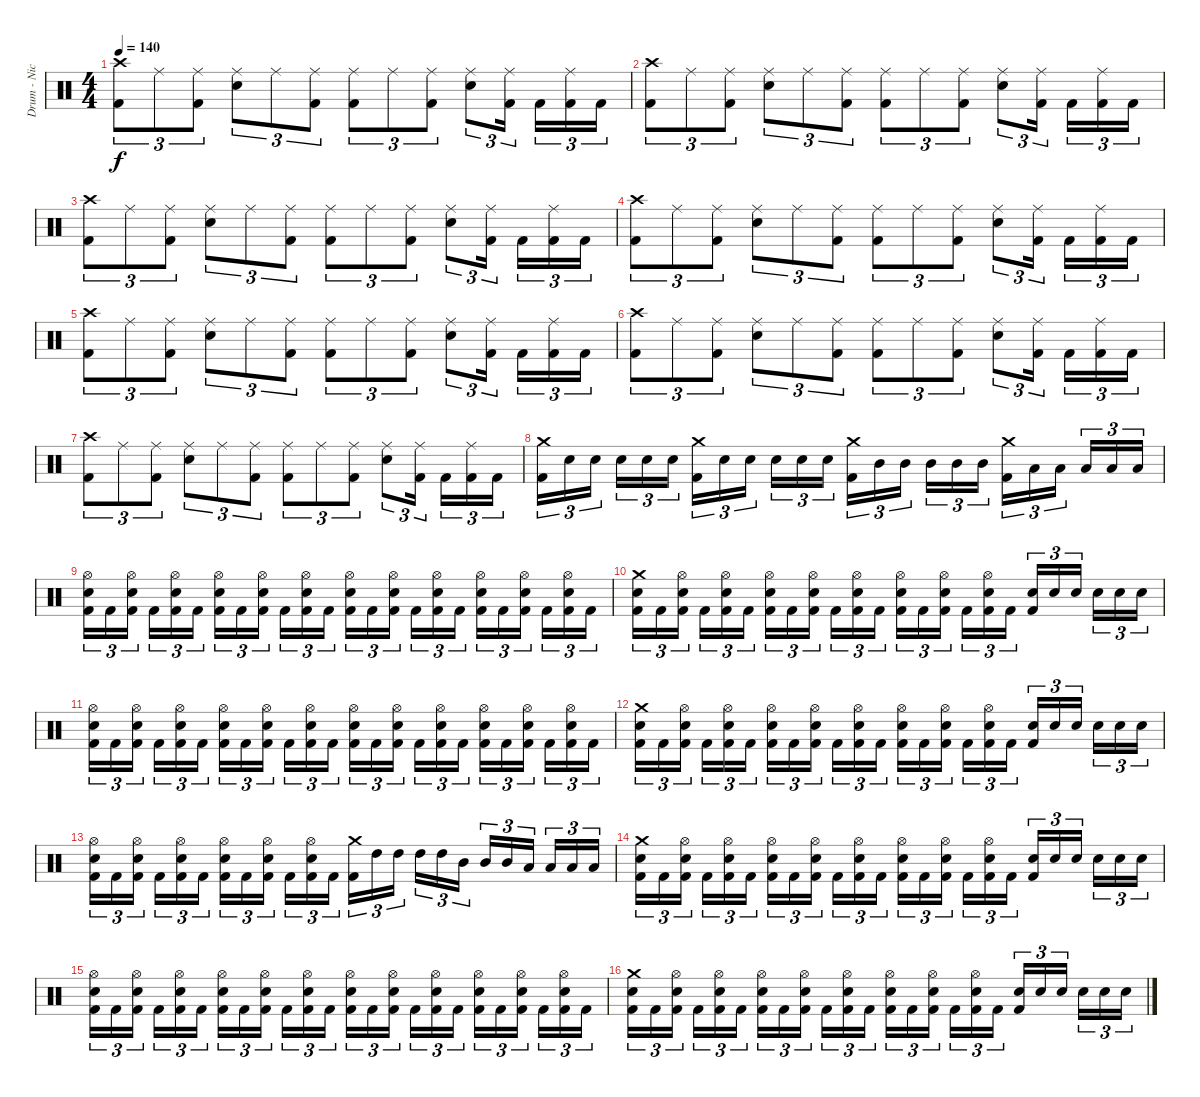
\track ("Drum - Nicholas" "Drum - Nic") {instrument percussion}
\staff {score}
\articulation defaults
\ts (4 4)
\tempo 140
\clef neutral
\ks c
("Crash high (hit)" "Kick (hit) 2").8{tu (3 2) dy f} "Ride (middle)".8{tu (3 2)} ("Ride (middle)" "Kick (hit) 2").8{tu (3 2)} ("Ride (middle)" "Snare (hit) 2").8{tu (3 2)} "Ride (middle)".8{tu (3 2)} ("Ride (middle)" "Kick (hit) 2").8{tu (3 2)} ("Ride (middle)" "Kick (hit) 2").8{tu (3 2)} "Ride (middle)".8{tu (3 2)} ("Ride (middle)" "Kick (hit) 2").8{tu (3 2)} ("Ride (middle)" "Snare (hit) 2").8{tu (3 2)} ("Ride (middle)" "Kick (hit) 2").16{tu (3 2) beam splitsecondary} "Kick (hit) 2".16{tu (3 2)} ("Ride (middle)" "Kick (hit) 2").16{tu (3 2)} "Kick (hit) 2".16{tu (3 2)} |
("Crash high (hit)" "Kick (hit) 2").8{tu (3 2)} "Ride (middle)".8{tu (3 2)} ("Ride (middle)" "Kick (hit) 2").8{tu (3 2)} ("Ride (middle)" "Snare (hit) 2").8{tu (3 2)} "Ride (middle)".8{tu (3 2)} ("Ride (middle)" "Kick (hit) 2").8{tu (3 2)} ("Ride (middle)" "Kick (hit) 2").8{tu (3 2)} "Ride (middle)".8{tu (3 2)} ("Ride (middle)" "Kick (hit) 2").8{tu (3 2)} ("Ride (middle)" "Snare (hit) 2").8{tu (3 2)} ("Ride (middle)" "Kick (hit) 2").16{tu (3 2) beam splitsecondary} "Kick (hit) 2".16{tu (3 2)} ("Ride (middle)" "Kick (hit) 2").16{tu (3 2)} "Kick (hit) 2".16{tu (3 2)} |
("Crash high (hit)" "Kick (hit) 2").8{tu (3 2)} "Ride (middle)".8{tu (3 2)} ("Ride (middle)" "Kick (hit) 2").8{tu (3 2)} ("Ride (middle)" "Snare (hit) 2").8{tu (3 2)} "Ride (middle)".8{tu (3 2)} ("Ride (middle)" "Kick (hit) 2").8{tu (3 2)} ("Ride (middle)" "Kick (hit) 2").8{tu (3 2)} "Ride (middle)".8{tu (3 2)} ("Ride (middle)" "Kick (hit) 2").8{tu (3 2)} ("Ride (middle)" "Snare (hit) 2").8{tu (3 2)} ("Ride (middle)" "Kick (hit) 2").16{tu (3 2) beam splitsecondary} "Kick (hit) 2".16{tu (3 2)} ("Ride (middle)" "Kick (hit) 2").16{tu (3 2)} "Kick (hit) 2".16{tu (3 2)} |
("Crash high (hit)" "Kick (hit) 2").8{tu (3 2)} "Ride (middle)".8{tu (3 2)} ("Ride (middle)" "Kick (hit) 2").8{tu (3 2)} ("Ride (middle)" "Snare (hit) 2").8{tu (3 2)} "Ride (middle)".8{tu (3 2)} ("Ride (middle)" "Kick (hit) 2").8{tu (3 2)} ("Ride (middle)" "Kick (hit) 2").8{tu (3 2)} "Ride (middle)".8{tu (3 2)} ("Ride (middle)" "Kick (hit) 2").8{tu (3 2)} ("Ride (middle)" "Snare (hit) 2").8{tu (3 2)} ("Ride (middle)" "Kick (hit) 2").16{tu (3 2) beam splitsecondary} "Kick (hit) 2".16{tu (3 2)} ("Ride (middle)" "Kick (hit) 2").16{tu (3 2)} "Kick (hit) 2".16{tu (3 2)} |
("Crash high (hit)" "Kick (hit) 2").8{tu (3 2)} "Ride (middle)".8{tu (3 2)} ("Ride (middle)" "Kick (hit) 2").8{tu (3 2)} ("Ride (middle)" "Snare (hit) 2").8{tu (3 2)} "Ride (middle)".8{tu (3 2)} ("Ride (middle)" "Kick (hit) 2").8{tu (3 2)} ("Ride (middle)" "Kick (hit) 2").8{tu (3 2)} "Ride (middle)".8{tu (3 2)} ("Ride (middle)" "Kick (hit) 2").8{tu (3 2)} ("Ride (middle)" "Snare (hit) 2").8{tu (3 2)} ("Ride (middle)" "Kick (hit) 2").16{tu (3 2) beam splitsecondary} "Kick (hit) 2".16{tu (3 2)} ("Ride (middle)" "Kick (hit) 2").16{tu (3 2)} "Kick (hit) 2".16{tu (3 2)} |
("Crash high (hit)" "Kick (hit) 2").8{tu (3 2)} "Ride (middle)".8{tu (3 2)} ("Ride (middle)" "Kick (hit) 2").8{tu (3 2)} ("Ride (middle)" "Snare (hit) 2").8{tu (3 2)} "Ride (middle)".8{tu (3 2)} ("Ride (middle)" "Kick (hit) 2").8{tu (3 2)} ("Ride (middle)" "Kick (hit) 2").8{tu (3 2)} "Ride (middle)".8{tu (3 2)} ("Ride (middle)" "Kick (hit) 2").8{tu (3 2)} ("Ride (middle)" "Snare (hit) 2").8{tu (3 2)} ("Ride (middle)" "Kick (hit) 2").16{tu (3 2) beam splitsecondary} "Kick (hit) 2".16{tu (3 2)} ("Ride (middle)" "Kick (hit) 2").16{tu (3 2)} "Kick (hit) 2".16{tu (3 2)} |
("Crash high (hit)" "Kick (hit) 2").8{tu (3 2)} "Ride (middle)".8{tu (3 2)} ("Ride (middle)" "Kick (hit) 2").8{tu (3 2)} ("Ride (middle)" "Snare (hit) 2").8{tu (3 2)} "Ride (middle)".8{tu (3 2)} ("Ride (middle)" "Kick (hit) 2").8{tu (3 2)} ("Ride (middle)" "Kick (hit) 2").8{tu (3 2)} "Ride (middle)".8{tu (3 2)} ("Ride (middle)" "Kick (hit) 2").8{tu (3 2)} ("Ride (middle)" "Snare (hit) 2").8{tu (3 2)} ("Ride (middle)" "Kick (hit) 2").16{tu (3 2) beam splitsecondary} "Kick (hit) 2".16{tu (3 2)} ("Ride (middle)" "Kick (hit) 2").16{tu (3 2)} "Kick (hit) 2".16{tu (3 2)} |
("Crash medium (hit)" "Kick (hit) 2").16{tu (3 2)} "Snare (hit) 2".16{tu (3 2)} "Snare (hit) 2".16{tu (3 2) beam splitsecondary} "Snare (hit) 2".16{tu (3 2)} "Snare (hit) 2".16{tu (3 2)} "Snare (hit) 2".16{tu (3 2)} ("Crash medium (hit)" "Kick (hit) 2").16{tu (3 2)} "Snare (hit) 2".16{tu (3 2)} "Snare (hit) 2".16{tu (3 2) beam splitsecondary} "Snare (hit) 2".16{tu (3 2)} "Snare (hit) 2".16{tu (3 2)} "Snare (hit) 2".16{tu (3 2)} ("Crash medium (hit)" "Kick (hit) 2").16{tu (3 2)} "Mid Tom (hit)".16{tu (3 2)} "Mid Tom (hit)".16{tu (3 2) beam splitsecondary} "Mid Tom (hit)".16{tu (3 2)} "Mid Tom (hit)".16{tu (3 2)} "Mid Tom (hit)".16{tu (3 2)} ("Crash medium (hit)" "Kick (hit) 2").16{tu (3 2)} "Low Tom (hit)".16{tu (3 2)} "Low Tom (hit)".16{tu (3 2) beam splitsecondary} "Low Tom (hit)".16{tu (3 2)} "Low Tom (hit)".16{tu (3 2)} "Low Tom (hit)".16{tu (3 2)} |
("Hi-Hat (open)" "Snare (hit) 2" "Kick (hit) 2").16{tu (3 2)} "Kick (hit) 2".16{tu (3 2)} ("Hi-Hat (open)" "Snare (hit) 2" "Kick (hit) 2").16{tu (3 2) beam splitsecondary} "Kick (hit) 2".16{tu (3 2)} ("Hi-Hat (open)" "Snare (hit) 2" "Kick (hit) 2").16{tu (3 2)} "Kick (hit) 2".16{tu (3 2)} ("Hi-Hat (open)" "Snare (hit) 2" "Kick (hit) 2").16{tu (3 2)} "Kick (hit) 2".16{tu (3 2)} ("Hi-Hat (open)" "Snare (hit) 2" "Kick (hit) 2").16{tu (3 2) beam splitsecondary} "Kick (hit) 2".16{tu (3 2)} ("Hi-Hat (open)" "Snare (hit) 2" "Kick (hit) 2").16{tu (3 2)} "Kick (hit) 2".16{tu (3 2)} ("Hi-Hat (open)" "Snare (hit) 2" "Kick (hit) 2").16{tu (3 2)} "Kick (hit) 2".16{tu (3 2)} ("Hi-Hat (open)" "Snare (hit) 2" "Kick (hit) 2").16{tu (3 2) beam splitsecondary} "Kick (hit) 2".16{tu (3 2)} ("Hi-Hat (open)" "Snare (hit) 2" "Kick (hit) 2").16{tu (3 2)} "Kick (hit) 2".16{tu (3 2)} ("Hi-Hat (open)" "Snare (hit) 2" "Kick (hit) 2").16{tu (3 2)} "Kick (hit) 2".16{tu (3 2)} ("Hi-Hat (open)" "Snare (hit) 2" "Kick (hit) 2").16{tu (3 2) beam splitsecondary} "Kick (hit) 2".16{tu (3 2)} ("Hi-Hat (open)" "Snare (hit) 2" "Kick (hit) 2").16{tu (3 2)} "Kick (hit) 2".16{tu (3 2)} |
("Crash medium (hit)" "Snare (hit) 2" "Kick (hit) 2").16{tu (3 2)} "Kick (hit) 2".16{tu (3 2)} ("Hi-Hat (open)" "Snare (hit) 2" "Kick (hit) 2").16{tu (3 2) beam splitsecondary} "Kick (hit) 2".16{tu (3 2)} ("Hi-Hat (open)" "Snare (hit) 2" "Kick (hit) 2").16{tu (3 2)} "Kick (hit) 2".16{tu (3 2)} ("Hi-Hat (open)" "Snare (hit) 2" "Kick (hit) 2").16{tu (3 2)} "Kick (hit) 2".16{tu (3 2)} ("Hi-Hat (open)" "Snare (hit) 2" "Kick (hit) 2").16{tu (3 2) beam splitsecondary} "Kick (hit) 2".16{tu (3 2)} ("Hi-Hat (open)" "Snare (hit) 2" "Kick (hit) 2").16{tu (3 2)} "Kick (hit) 2".16{tu (3 2)} ("Hi-Hat (open)" "Snare (hit) 2" "Kick (hit) 2").16{tu (3 2)} "Kick (hit) 2".16{tu (3 2)} ("Hi-Hat (open)" "Snare (hit) 2" "Kick (hit) 2").16{tu (3 2) beam splitsecondary} "Kick (hit) 2".16{tu (3 2)} ("Hi-Hat (open)" "Snare (hit) 2" "Kick (hit) 2").16{tu (3 2)} "Kick (hit) 2".16{tu (3 2)} ("Snare (hit) 2" "Kick (hit) 2").16{tu (3 2)} "Snare (hit) 2".16{tu (3 2)} "Snare (hit) 2".16{tu (3 2) beam splitsecondary} "Snare (hit) 2".16{tu (3 2)} "Snare (hit) 2".16{tu (3 2)} "Snare (hit) 2".16{tu (3 2)} |
("Hi-Hat (open)" "Snare (hit) 2" "Kick (hit) 2").16{tu (3 2)} "Kick (hit) 2".16{tu (3 2)} ("Hi-Hat (open)" "Snare (hit) 2" "Kick (hit) 2").16{tu (3 2) beam splitsecondary} "Kick (hit) 2".16{tu (3 2)} ("Hi-Hat (open)" "Snare (hit) 2" "Kick (hit) 2").16{tu (3 2)} "Kick (hit) 2".16{tu (3 2)} ("Hi-Hat (open)" "Snare (hit) 2" "Kick (hit) 2").16{tu (3 2)} "Kick (hit) 2".16{tu (3 2)} ("Hi-Hat (open)" "Snare (hit) 2" "Kick (hit) 2").16{tu (3 2) beam splitsecondary} "Kick (hit) 2".16{tu (3 2)} ("Hi-Hat (open)" "Snare (hit) 2" "Kick (hit) 2").16{tu (3 2)} "Kick (hit) 2".16{tu (3 2)} ("Hi-Hat (open)" "Snare (hit) 2" "Kick (hit) 2").16{tu (3 2)} "Kick (hit) 2".16{tu (3 2)} ("Hi-Hat (open)" "Snare (hit) 2" "Kick (hit) 2").16{tu (3 2) beam splitsecondary} "Kick (hit) 2".16{tu (3 2)} ("Hi-Hat (open)" "Snare (hit) 2" "Kick (hit) 2").16{tu (3 2)} "Kick (hit) 2".16{tu (3 2)} ("Hi-Hat (open)" "Snare (hit) 2" "Kick (hit) 2").16{tu (3 2)} "Kick (hit) 2".16{tu (3 2)} ("Hi-Hat (open)" "Snare (hit) 2" "Kick (hit) 2").16{tu (3 2) beam splitsecondary} "Kick (hit) 2".16{tu (3 2)} ("Hi-Hat (open)" "Snare (hit) 2" "Kick (hit) 2").16{tu (3 2)} "Kick (hit) 2".16{tu (3 2)} |
("Crash medium (hit)" "Snare (hit) 2" "Kick (hit) 2").16{tu (3 2)} "Kick (hit) 2".16{tu (3 2)} ("Hi-Hat (open)" "Snare (hit) 2" "Kick (hit) 2").16{tu (3 2) beam splitsecondary} "Kick (hit) 2".16{tu (3 2)} ("Hi-Hat (open)" "Snare (hit) 2" "Kick (hit) 2").16{tu (3 2)} "Kick (hit) 2".16{tu (3 2)} ("Hi-Hat (open)" "Snare (hit) 2" "Kick (hit) 2").16{tu (3 2)} "Kick (hit) 2".16{tu (3 2)} ("Hi-Hat (open)" "Snare (hit) 2" "Kick (hit) 2").16{tu (3 2) beam splitsecondary} "Kick (hit) 2".16{tu (3 2)} ("Hi-Hat (open)" "Snare (hit) 2" "Kick (hit) 2").16{tu (3 2)} "Kick (hit) 2".16{tu (3 2)} ("Hi-Hat (open)" "Snare (hit) 2" "Kick (hit) 2").16{tu (3 2)} "Kick (hit) 2".16{tu (3 2)} ("Hi-Hat (open)" "Snare (hit) 2" "Kick (hit) 2").16{tu (3 2) beam splitsecondary} "Kick (hit) 2".16{tu (3 2)} ("Hi-Hat (open)" "Snare (hit) 2" "Kick (hit) 2").16{tu (3 2)} "Kick (hit) 2".16{tu (3 2)} ("Snare (hit) 2" "Kick (hit) 2").16{tu (3 2)} "Snare (hit) 2".16{tu (3 2)} "Snare (hit) 2".16{tu (3 2) beam splitsecondary} "Snare (hit) 2".16{tu (3 2)} "Snare (hit) 2".16{tu (3 2)} "Snare (hit) 2".16{tu (3 2)} |
("Hi-Hat (open)" "Snare (hit) 2" "Kick (hit) 2").16{tu (3 2)} "Kick (hit) 2".16{tu (3 2)} ("Hi-Hat (open)" "Snare (hit) 2" "Kick (hit) 2").16{tu (3 2) beam splitsecondary} "Kick (hit) 2".16{tu (3 2)} ("Hi-Hat (open)" "Snare (hit) 2" "Kick (hit) 2").16{tu (3 2)} "Kick (hit) 2".16{tu (3 2)} ("Hi-Hat (open)" "Snare (hit) 2" "Kick (hit) 2").16{tu (3 2)} "Kick (hit) 2".16{tu (3 2)} ("Hi-Hat (open)" "Snare (hit) 2" "Kick (hit) 2").16{tu (3 2) beam splitsecondary} "Kick (hit) 2".16{tu (3 2)} ("Hi-Hat (open)" "Snare (hit) 2" "Kick (hit) 2").16{tu (3 2)} "Kick (hit) 2".16{tu (3 2)} ("Crash medium (hit)" "Kick (hit) 2").16{tu (3 2)} "High Tom (hit)".16{tu (3 2)} "High Tom (hit)".16{tu (3 2) beam splitsecondary} "High Tom (hit)".16{tu (3 2)} "High Tom (hit)".16{tu (3 2)} "Mid Tom (hit)".16{tu (3 2)} "Mid Tom (hit)".16{tu (3 2)} "Mid Tom (hit)".16{tu (3 2)} "Low Tom (hit)".16{tu (3 2) beam splitsecondary} "Low Tom (hit)".16{tu (3 2)} "Low Tom (hit)".16{tu (3 2)} "Low Tom (hit)".16{tu (3 2)} |
("Crash medium (hit)" "Snare (hit) 2" "Kick (hit) 2").16{tu (3 2)} "Kick (hit) 2".16{tu (3 2)} ("Hi-Hat (open)" "Snare (hit) 2" "Kick (hit) 2").16{tu (3 2) beam splitsecondary} "Kick (hit) 2".16{tu (3 2)} ("Hi-Hat (open)" "Snare (hit) 2" "Kick (hit) 2").16{tu (3 2)} "Kick (hit) 2".16{tu (3 2)} ("Hi-Hat (open)" "Snare (hit) 2" "Kick (hit) 2").16{tu (3 2)} "Kick (hit) 2".16{tu (3 2)} ("Hi-Hat (open)" "Snare (hit) 2" "Kick (hit) 2").16{tu (3 2) beam splitsecondary} "Kick (hit) 2".16{tu (3 2)} ("Hi-Hat (open)" "Snare (hit) 2" "Kick (hit) 2").16{tu (3 2)} "Kick (hit) 2".16{tu (3 2)} ("Hi-Hat (open)" "Snare (hit) 2" "Kick (hit) 2").16{tu (3 2)} "Kick (hit) 2".16{tu (3 2)} ("Hi-Hat (open)" "Snare (hit) 2" "Kick (hit) 2").16{tu (3 2) beam splitsecondary} "Kick (hit) 2".16{tu (3 2)} ("Hi-Hat (open)" "Snare (hit) 2" "Kick (hit) 2").16{tu (3 2)} "Kick (hit) 2".16{tu (3 2)} ("Snare (hit) 2" "Kick (hit) 2").16{tu (3 2)} "Snare (hit) 2".16{tu (3 2)} "Snare (hit) 2".16{tu (3 2) beam splitsecondary} "Snare (hit) 2".16{tu (3 2)} "Snare (hit) 2".16{tu (3 2)} "Snare (hit) 2".16{tu (3 2)} |
("Hi-Hat (open)" "Snare (hit) 2" "Kick (hit) 2").16{tu (3 2)} "Kick (hit) 2".16{tu (3 2)} ("Hi-Hat (open)" "Snare (hit) 2" "Kick (hit) 2").16{tu (3 2) beam splitsecondary} "Kick (hit) 2".16{tu (3 2)} ("Hi-Hat (open)" "Snare (hit) 2" "Kick (hit) 2").16{tu (3 2)} "Kick (hit) 2".16{tu (3 2)} ("Hi-Hat (open)" "Snare (hit) 2" "Kick (hit) 2").16{tu (3 2)} "Kick (hit) 2".16{tu (3 2)} ("Hi-Hat (open)" "Snare (hit) 2" "Kick (hit) 2").16{tu (3 2) beam splitsecondary} "Kick (hit) 2".16{tu (3 2)} ("Hi-Hat (open)" "Snare (hit) 2" "Kick (hit) 2").16{tu (3 2)} "Kick (hit) 2".16{tu (3 2)} ("Hi-Hat (open)" "Snare (hit) 2" "Kick (hit) 2").16{tu (3 2)} "Kick (hit) 2".16{tu (3 2)} ("Hi-Hat (open)" "Snare (hit) 2" "Kick (hit) 2").16{tu (3 2) beam splitsecondary} "Kick (hit) 2".16{tu (3 2)} ("Hi-Hat (open)" "Snare (hit) 2" "Kick (hit) 2").16{tu (3 2)} "Kick (hit) 2".16{tu (3 2)} ("Hi-Hat (open)" "Snare (hit) 2" "Kick (hit) 2").16{tu (3 2)} "Kick (hit) 2".16{tu (3 2)} ("Hi-Hat (open)" "Snare (hit) 2" "Kick (hit) 2").16{tu (3 2) beam splitsecondary} "Kick (hit) 2".16{tu (3 2)} ("Hi-Hat (open)" "Snare (hit) 2" "Kick (hit) 2").16{tu (3 2)} "Kick (hit) 2".16{tu (3 2)} |
("Crash medium (hit)" "Snare (hit) 2" "Kick (hit) 2").16{tu (3 2)} "Kick (hit) 2".16{tu (3 2)} ("Hi-Hat (open)" "Snare (hit) 2" "Kick (hit) 2").16{tu (3 2) beam splitsecondary} "Kick (hit) 2".16{tu (3 2)} ("Hi-Hat (open)" "Snare (hit) 2" "Kick (hit) 2").16{tu (3 2)} "Kick (hit) 2".16{tu (3 2)} ("Hi-Hat (open)" "Snare (hit) 2" "Kick (hit) 2").16{tu (3 2)} "Kick (hit) 2".16{tu (3 2)} ("Hi-Hat (open)" "Snare (hit) 2" "Kick (hit) 2").16{tu (3 2) beam splitsecondary} "Kick (hit) 2".16{tu (3 2)} ("Hi-Hat (open)" "Snare (hit) 2" "Kick (hit) 2").16{tu (3 2)} "Kick (hit) 2".16{tu (3 2)} ("Hi-Hat (open)" "Snare (hit) 2" "Kick (hit) 2").16{tu (3 2)} "Kick (hit) 2".16{tu (3 2)} ("Hi-Hat (open)" "Snare (hit) 2" "Kick (hit) 2").16{tu (3 2) beam splitsecondary} "Kick (hit) 2".16{tu (3 2)} ("Hi-Hat (open)" "Snare (hit) 2" "Kick (hit) 2").16{tu (3 2)} "Kick (hit) 2".16{tu (3 2)} ("Snare (hit) 2" "Kick (hit) 2").16{tu (3 2)} "Snare (hit) 2".16{tu (3 2)} "Snare (hit) 2".16{tu (3 2) beam splitsecondary} "Snare (hit) 2".16{tu (3 2)} "Snare (hit) 2".16{tu (3 2)} "Snare (hit) 2".16{tu (3 2)}
